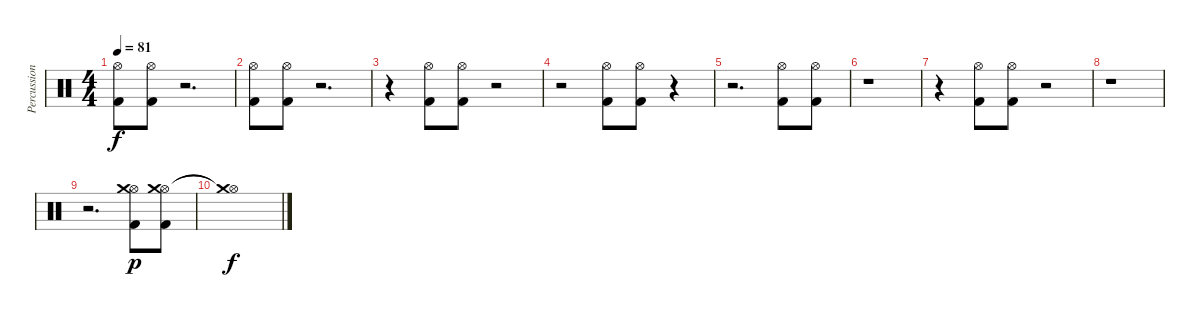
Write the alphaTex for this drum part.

\track ("Percussions" "Percussion") {instrument percussion}
\staff {score}
\articulation defaults
\ts (4 4)
\tempo 81
\clef neutral
\ks c
("Hi-Hat (open)" "Kick (hit) 2").8{dy f} ("Hi-Hat (open)" "Kick (hit) 2").8 r.2{d} |
("Hi-Hat (open)" "Kick (hit) 2").8 ("Hi-Hat (open)" "Kick (hit) 2").8 r.2{d} |
r.4 ("Hi-Hat (open)" "Kick (hit) 2").8 ("Hi-Hat (open)" "Kick (hit) 2").8 r.2 |
r.2 ("Hi-Hat (open)" "Kick (hit) 2").8 ("Hi-Hat (open)" "Kick (hit) 2").8 r.4 |
r.2{d} ("Hi-Hat (open)" "Kick (hit) 2").8 ("Hi-Hat (open)" "Kick (hit) 2").8 |
r.1 |
r.4 ("Hi-Hat (open)" "Kick (hit) 2").8 ("Hi-Hat (open)" "Kick (hit) 2").8 r.2 |
r.1 |
r.2{d} ("Hi-Hat (open)" "Crash medium (hit)" "Kick (hit) 2").8{dy p} ("Hi-Hat (open)" "Crash medium (hit)" "Kick (hit) 2").8 |
("Hi-Hat (open)"{t} "Crash medium (hit)"{t}).1{dy f}
